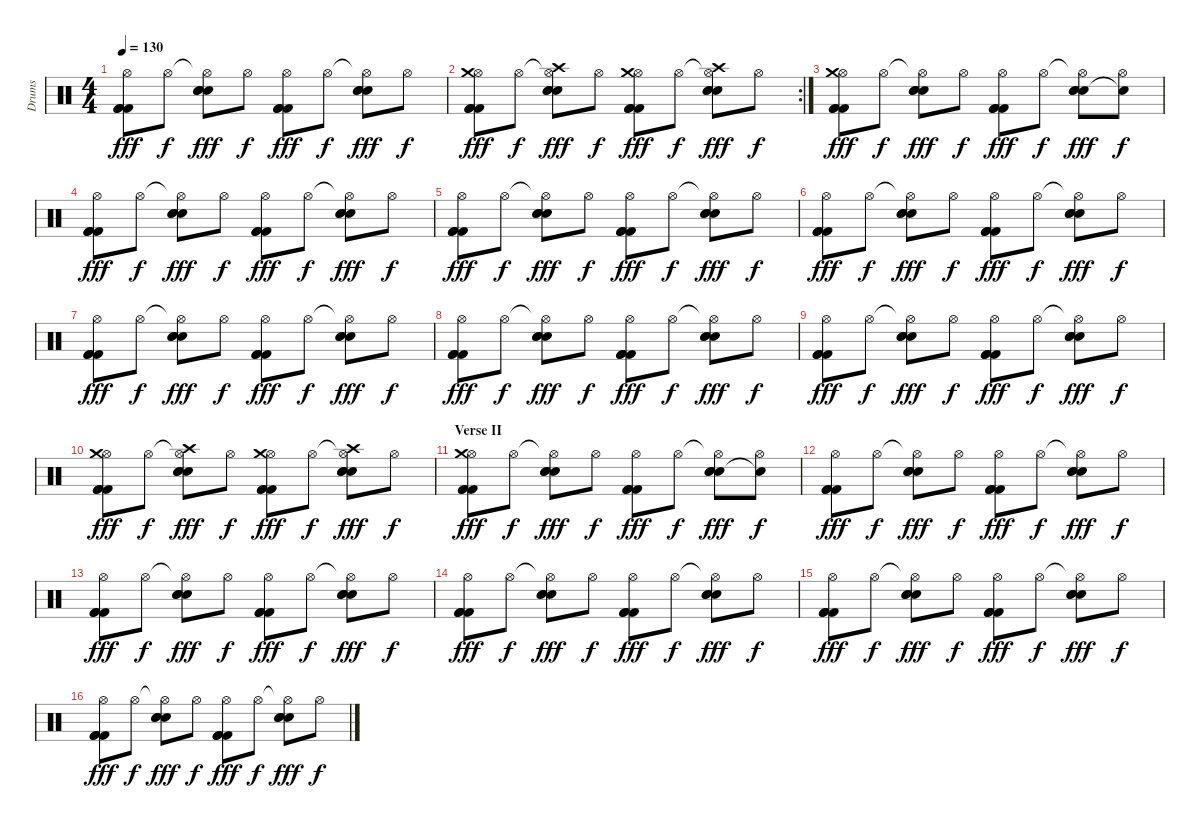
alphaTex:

\track ("Drums" "Drums") {instrument percussion}
\staff {score}
\articulation defaults
\ts (4 4)
\tempo 130
\clef neutral
\ks c
("Hi-Hat (open)" "Kick (hit) 2" "Kick (hit) 2" "Kick (hit) 2").8{dy fff} "Hi-Hat (open)".8{dy f} ("Hi-Hat (open)"{t} "Electric Snare (hit)" "Electric Snare (hit)" "Electric Snare (hit)").8{dy fff} "Hi-Hat (open)".8{dy f} ("Hi-Hat (open)" "Kick (hit) 2" "Kick (hit) 2" "Kick (hit) 2").8{dy fff} "Hi-Hat (open)".8{dy f} ("Hi-Hat (open)"{t} "Electric Snare (hit)" "Electric Snare (hit)" "Electric Snare (hit)").8{dy fff} "Hi-Hat (open)".8{dy f} |
\rc 2
("Hi-Hat (open)" "Kick (hit) 2" "Kick (hit) 2" "Kick (hit) 2" "Crash medium (hit)").8{dy fff} "Hi-Hat (open)".8{dy f} ("Hi-Hat (open)"{t} "Electric Snare (hit)" "Electric Snare (hit)" "Electric Snare (hit)" "Crash high (hit)").8{dy fff} "Hi-Hat (open)".8{dy f} ("Hi-Hat (open)" "Kick (hit) 2" "Kick (hit) 2" "Kick (hit) 2" "Crash medium (hit)").8{dy fff} "Hi-Hat (open)".8{dy f} ("Hi-Hat (open)"{t} "Electric Snare (hit)" "Electric Snare (hit)" "Electric Snare (hit)" "Crash high (hit)").8{dy fff} "Hi-Hat (open)".8{dy f} |
("Hi-Hat (open)" "Kick (hit) 2" "Kick (hit) 2" "Kick (hit) 2" "Crash medium (hit)").8{dy fff} "Hi-Hat (open)".8{dy f} ("Hi-Hat (open)"{t} "Electric Snare (hit)" "Electric Snare (hit)" "Electric Snare (hit)").8{dy fff} "Hi-Hat (open)".8{dy f} ("Hi-Hat (open)" "Kick (hit) 2" "Kick (hit) 2" "Kick (hit) 2").8{dy fff} "Hi-Hat (open)".8{dy f} ("Hi-Hat (open)"{t} "Electric Snare (hit)" "Electric Snare (hit)" "Electric Snare (hit)").8{dy fff} ("Hi-Hat (open)" "Snare (hit)"{t}).8{dy f} |
("Hi-Hat (open)" "Kick (hit) 2" "Kick (hit) 2" "Kick (hit) 2").8{dy fff} "Hi-Hat (open)".8{dy f} ("Hi-Hat (open)"{t} "Electric Snare (hit)" "Electric Snare (hit)" "Electric Snare (hit)").8{dy fff} "Hi-Hat (open)".8{dy f} ("Hi-Hat (open)" "Kick (hit) 2" "Kick (hit) 2" "Kick (hit) 2").8{dy fff} "Hi-Hat (open)".8{dy f} ("Hi-Hat (open)"{t} "Electric Snare (hit)" "Electric Snare (hit)" "Electric Snare (hit)").8{dy fff} "Hi-Hat (open)".8{dy f} |
("Hi-Hat (open)" "Kick (hit) 2" "Kick (hit) 2" "Kick (hit) 2").8{dy fff} "Hi-Hat (open)".8{dy f} ("Hi-Hat (open)"{t} "Electric Snare (hit)" "Electric Snare (hit)" "Electric Snare (hit)").8{dy fff} "Hi-Hat (open)".8{dy f} ("Hi-Hat (open)" "Kick (hit) 2" "Kick (hit) 2" "Kick (hit) 2").8{dy fff} "Hi-Hat (open)".8{dy f} ("Hi-Hat (open)"{t} "Electric Snare (hit)" "Electric Snare (hit)" "Electric Snare (hit)").8{dy fff} "Hi-Hat (open)".8{dy f} |
("Hi-Hat (open)" "Kick (hit) 2" "Kick (hit) 2" "Kick (hit) 2").8{dy fff} "Hi-Hat (open)".8{dy f} ("Hi-Hat (open)"{t} "Electric Snare (hit)" "Electric Snare (hit)" "Electric Snare (hit)").8{dy fff} "Hi-Hat (open)".8{dy f} ("Hi-Hat (open)" "Kick (hit) 2" "Kick (hit) 2" "Kick (hit) 2").8{dy fff} "Hi-Hat (open)".8{dy f} ("Hi-Hat (open)"{t} "Electric Snare (hit)" "Electric Snare (hit)" "Electric Snare (hit)").8{dy fff} "Hi-Hat (open)".8{dy f} |
("Hi-Hat (open)" "Kick (hit) 2" "Kick (hit) 2" "Kick (hit) 2").8{dy fff} "Hi-Hat (open)".8{dy f} ("Hi-Hat (open)"{t} "Electric Snare (hit)" "Electric Snare (hit)" "Electric Snare (hit)").8{dy fff} "Hi-Hat (open)".8{dy f} ("Hi-Hat (open)" "Kick (hit) 2" "Kick (hit) 2" "Kick (hit) 2").8{dy fff} "Hi-Hat (open)".8{dy f} ("Hi-Hat (open)"{t} "Electric Snare (hit)" "Electric Snare (hit)" "Electric Snare (hit)").8{dy fff} "Hi-Hat (open)".8{dy f} |
("Hi-Hat (open)" "Kick (hit) 2" "Kick (hit) 2" "Kick (hit) 2").8{dy fff} "Hi-Hat (open)".8{dy f} ("Hi-Hat (open)"{t} "Electric Snare (hit)" "Electric Snare (hit)" "Electric Snare (hit)").8{dy fff} "Hi-Hat (open)".8{dy f} ("Hi-Hat (open)" "Kick (hit) 2" "Kick (hit) 2" "Kick (hit) 2").8{dy fff} "Hi-Hat (open)".8{dy f} ("Hi-Hat (open)"{t} "Electric Snare (hit)" "Electric Snare (hit)" "Electric Snare (hit)").8{dy fff} "Hi-Hat (open)".8{dy f} |
("Hi-Hat (open)" "Kick (hit) 2" "Kick (hit) 2" "Kick (hit) 2").8{dy fff} "Hi-Hat (open)".8{dy f} ("Hi-Hat (open)"{t} "Electric Snare (hit)" "Electric Snare (hit)" "Electric Snare (hit)").8{dy fff} "Hi-Hat (open)".8{dy f} ("Hi-Hat (open)" "Kick (hit) 2" "Kick (hit) 2" "Kick (hit) 2").8{dy fff} "Hi-Hat (open)".8{dy f} ("Hi-Hat (open)"{t} "Electric Snare (hit)" "Electric Snare (hit)" "Electric Snare (hit)").8{dy fff} "Hi-Hat (open)".8{dy f} |
("Hi-Hat (open)" "Kick (hit) 2" "Kick (hit) 2" "Kick (hit) 2" "Crash medium (hit)").8{dy fff} "Hi-Hat (open)".8{dy f} ("Hi-Hat (open)"{t} "Electric Snare (hit)" "Electric Snare (hit)" "Electric Snare (hit)" "Crash high (hit)").8{dy fff} "Hi-Hat (open)".8{dy f} ("Hi-Hat (open)" "Kick (hit) 2" "Kick (hit) 2" "Kick (hit) 2" "Crash medium (hit)").8{dy fff} "Hi-Hat (open)".8{dy f} ("Hi-Hat (open)"{t} "Electric Snare (hit)" "Electric Snare (hit)" "Electric Snare (hit)" "Crash high (hit)").8{dy fff} "Hi-Hat (open)".8{dy f} |
\section ("" "Verse II")
("Hi-Hat (open)" "Kick (hit) 2" "Kick (hit) 2" "Kick (hit) 2" "Crash medium (hit)").8{dy fff} "Hi-Hat (open)".8{dy f} ("Hi-Hat (open)"{t} "Electric Snare (hit)" "Electric Snare (hit)" "Electric Snare (hit)").8{dy fff} "Hi-Hat (open)".8{dy f} ("Hi-Hat (open)" "Kick (hit) 2" "Kick (hit) 2" "Kick (hit) 2").8{dy fff} "Hi-Hat (open)".8{dy f} ("Hi-Hat (open)"{t} "Electric Snare (hit)" "Electric Snare (hit)" "Electric Snare (hit)").8{dy fff} ("Hi-Hat (open)" "Snare (hit)"{t}).8{dy f} |
("Hi-Hat (open)" "Kick (hit) 2" "Kick (hit) 2" "Kick (hit) 2").8{dy fff} "Hi-Hat (open)".8{dy f} ("Hi-Hat (open)"{t} "Electric Snare (hit)" "Electric Snare (hit)" "Electric Snare (hit)").8{dy fff} "Hi-Hat (open)".8{dy f} ("Hi-Hat (open)" "Kick (hit) 2" "Kick (hit) 2" "Kick (hit) 2").8{dy fff} "Hi-Hat (open)".8{dy f} ("Hi-Hat (open)"{t} "Electric Snare (hit)" "Electric Snare (hit)" "Electric Snare (hit)").8{dy fff} "Hi-Hat (open)".8{dy f} |
("Hi-Hat (open)" "Kick (hit) 2" "Kick (hit) 2" "Kick (hit) 2").8{dy fff} "Hi-Hat (open)".8{dy f} ("Hi-Hat (open)"{t} "Electric Snare (hit)" "Electric Snare (hit)" "Electric Snare (hit)").8{dy fff} "Hi-Hat (open)".8{dy f} ("Hi-Hat (open)" "Kick (hit) 2" "Kick (hit) 2" "Kick (hit) 2").8{dy fff} "Hi-Hat (open)".8{dy f} ("Hi-Hat (open)"{t} "Electric Snare (hit)" "Electric Snare (hit)" "Electric Snare (hit)").8{dy fff} "Hi-Hat (open)".8{dy f} |
("Hi-Hat (open)" "Kick (hit) 2" "Kick (hit) 2" "Kick (hit) 2").8{dy fff} "Hi-Hat (open)".8{dy f} ("Hi-Hat (open)"{t} "Electric Snare (hit)" "Electric Snare (hit)" "Electric Snare (hit)").8{dy fff} "Hi-Hat (open)".8{dy f} ("Hi-Hat (open)" "Kick (hit) 2" "Kick (hit) 2" "Kick (hit) 2").8{dy fff} "Hi-Hat (open)".8{dy f} ("Hi-Hat (open)"{t} "Electric Snare (hit)" "Electric Snare (hit)" "Electric Snare (hit)").8{dy fff} "Hi-Hat (open)".8{dy f} |
("Hi-Hat (open)" "Kick (hit) 2" "Kick (hit) 2" "Kick (hit) 2").8{dy fff} "Hi-Hat (open)".8{dy f} ("Hi-Hat (open)"{t} "Electric Snare (hit)" "Electric Snare (hit)" "Electric Snare (hit)").8{dy fff} "Hi-Hat (open)".8{dy f} ("Hi-Hat (open)" "Kick (hit) 2" "Kick (hit) 2" "Kick (hit) 2").8{dy fff} "Hi-Hat (open)".8{dy f} ("Hi-Hat (open)"{t} "Electric Snare (hit)" "Electric Snare (hit)" "Electric Snare (hit)").8{dy fff} "Hi-Hat (open)".8{dy f} |
("Hi-Hat (open)" "Kick (hit) 2" "Kick (hit) 2" "Kick (hit) 2").8{dy fff} "Hi-Hat (open)".8{dy f} ("Hi-Hat (open)"{t} "Electric Snare (hit)" "Electric Snare (hit)" "Electric Snare (hit)").8{dy fff} "Hi-Hat (open)".8{dy f} ("Hi-Hat (open)" "Kick (hit) 2" "Kick (hit) 2" "Kick (hit) 2").8{dy fff} "Hi-Hat (open)".8{dy f} ("Hi-Hat (open)"{t} "Electric Snare (hit)" "Electric Snare (hit)" "Electric Snare (hit)").8{dy fff} "Hi-Hat (open)".8{dy f}
